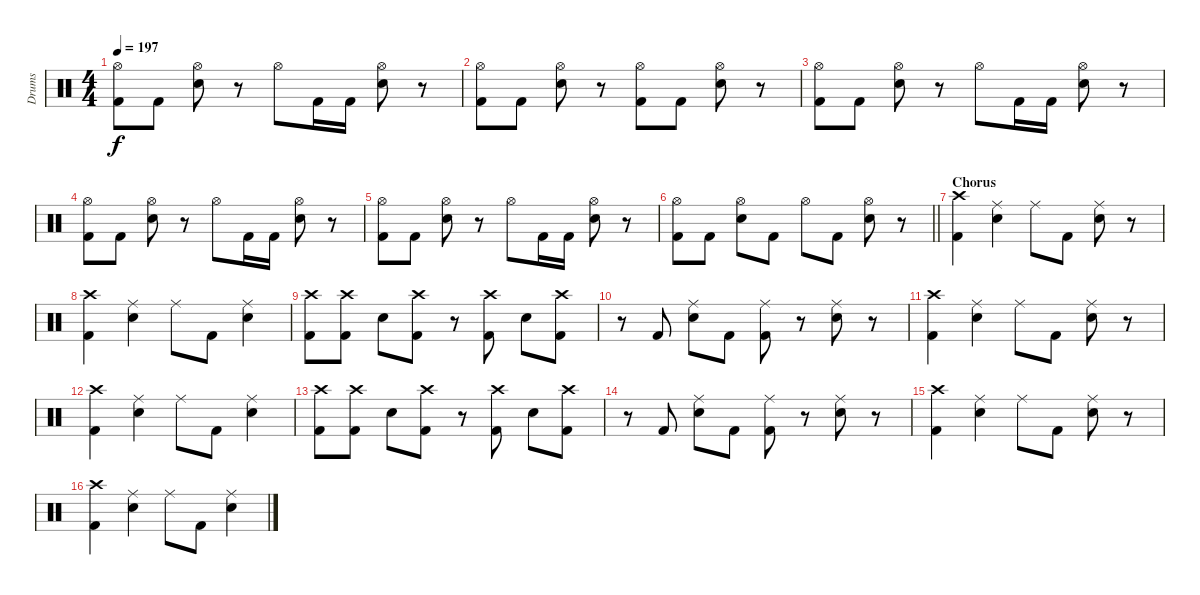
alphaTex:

\track ("Drums" "Drums") {instrument percussion}
\staff {score}
\articulation defaults
\ts (4 4)
\tempo 197
\clef neutral
\ks c
("Hi-Hat (open)" "Kick (hit) 2").8{dy f} "Kick (hit) 2".8 ("Hi-Hat (open)" "Electric Snare (hit)").8 r.8 "Hi-Hat (open)".8 "Kick (hit) 2".16 "Kick (hit) 2".16 ("Hi-Hat (open)" "Electric Snare (hit)").8 r.8 |
("Hi-Hat (open)" "Kick (hit) 2").8 "Kick (hit) 2".8 ("Hi-Hat (open)" "Electric Snare (hit)").8 r.8 ("Hi-Hat (open)" "Kick (hit) 2").8 "Kick (hit) 2".8 ("Hi-Hat (open)" "Electric Snare (hit)").8 r.8 |
("Hi-Hat (open)" "Kick (hit) 2").8 "Kick (hit) 2".8 ("Hi-Hat (open)" "Electric Snare (hit)").8 r.8 "Hi-Hat (open)".8 "Kick (hit) 2".16 "Kick (hit) 2".16 ("Hi-Hat (open)" "Electric Snare (hit)").8 r.8 |
("Hi-Hat (open)" "Kick (hit) 2").8 "Kick (hit) 2".8 ("Hi-Hat (open)" "Electric Snare (hit)").8 r.8 "Hi-Hat (open)".8 "Kick (hit) 2".16 "Kick (hit) 2".16 ("Hi-Hat (open)" "Electric Snare (hit)").8 r.8 |
("Hi-Hat (open)" "Kick (hit) 2").8 "Kick (hit) 2".8 ("Hi-Hat (open)" "Electric Snare (hit)").8 r.8 "Hi-Hat (open)".8 "Kick (hit) 2".16 "Kick (hit) 2".16 ("Hi-Hat (open)" "Electric Snare (hit)").8 r.8 |
\barLineRight lightlight
("Hi-Hat (open)" "Kick (hit) 2").8 "Kick (hit) 2".8 ("Hi-Hat (open)" "Electric Snare (hit)").8 "Kick (hit) 2".8 "Hi-Hat (open)".8 "Kick (hit) 2".8 ("Hi-Hat (open)" "Electric Snare (hit)").8 r.8 |
\section ("" "Chorus")
("Crash high (hit)" "Kick (hit) 2").4 ("Ride (middle)" "Electric Snare (hit)").4 "Ride (middle)".8 "Kick (hit) 2".8 ("Ride (middle)" "Electric Snare (hit)").8 r.8 |
("Crash high (hit)" "Kick (hit) 2").4 ("Ride (middle)" "Electric Snare (hit)").4 "Ride (middle)".8 "Kick (hit) 2".8 ("Ride (middle)" "Electric Snare (hit)").4 |
("Crash high (hit)" "Kick (hit) 2").8 ("Crash high (hit)" "Kick (hit) 2").8 "Electric Snare (hit)".8 ("Crash high (hit)" "Kick (hit) 2").8 r.8 ("Crash high (hit)" "Kick (hit) 2").8 "Electric Snare (hit)".8 ("Crash high (hit)" "Kick (hit) 2").8 |
r.8 "Kick (hit) 2".8 ("Ride (middle)" "Electric Snare (hit)").8 "Kick (hit) 2".8 ("Ride (middle)" "Kick (hit) 2").8 r.8 ("Ride (middle)" "Electric Snare (hit)").8 r.8 |
("Crash high (hit)" "Kick (hit) 2").4 ("Ride (middle)" "Electric Snare (hit)").4 "Ride (middle)".8 "Kick (hit) 2".8 ("Ride (middle)" "Electric Snare (hit)").8 r.8 |
("Crash high (hit)" "Kick (hit) 2").4 ("Ride (middle)" "Electric Snare (hit)").4 "Ride (middle)".8 "Kick (hit) 2".8 ("Ride (middle)" "Electric Snare (hit)").4 |
("Crash high (hit)" "Kick (hit) 2").8 ("Crash high (hit)" "Kick (hit) 2").8 "Electric Snare (hit)".8 ("Crash high (hit)" "Kick (hit) 2").8 r.8 ("Crash high (hit)" "Kick (hit) 2").8 "Electric Snare (hit)".8 ("Crash high (hit)" "Kick (hit) 2").8 |
r.8 "Kick (hit) 2".8 ("Ride (middle)" "Electric Snare (hit)").8 "Kick (hit) 2".8 ("Ride (middle)" "Kick (hit) 2").8 r.8 ("Ride (middle)" "Electric Snare (hit)").8 r.8 |
("Crash high (hit)" "Kick (hit) 2").4 ("Ride (middle)" "Electric Snare (hit)").4 "Ride (middle)".8 "Kick (hit) 2".8 ("Ride (middle)" "Electric Snare (hit)").8 r.8 |
("Crash high (hit)" "Kick (hit) 2").4 ("Ride (middle)" "Electric Snare (hit)").4 "Ride (middle)".8 "Kick (hit) 2".8 ("Ride (middle)" "Electric Snare (hit)").4
